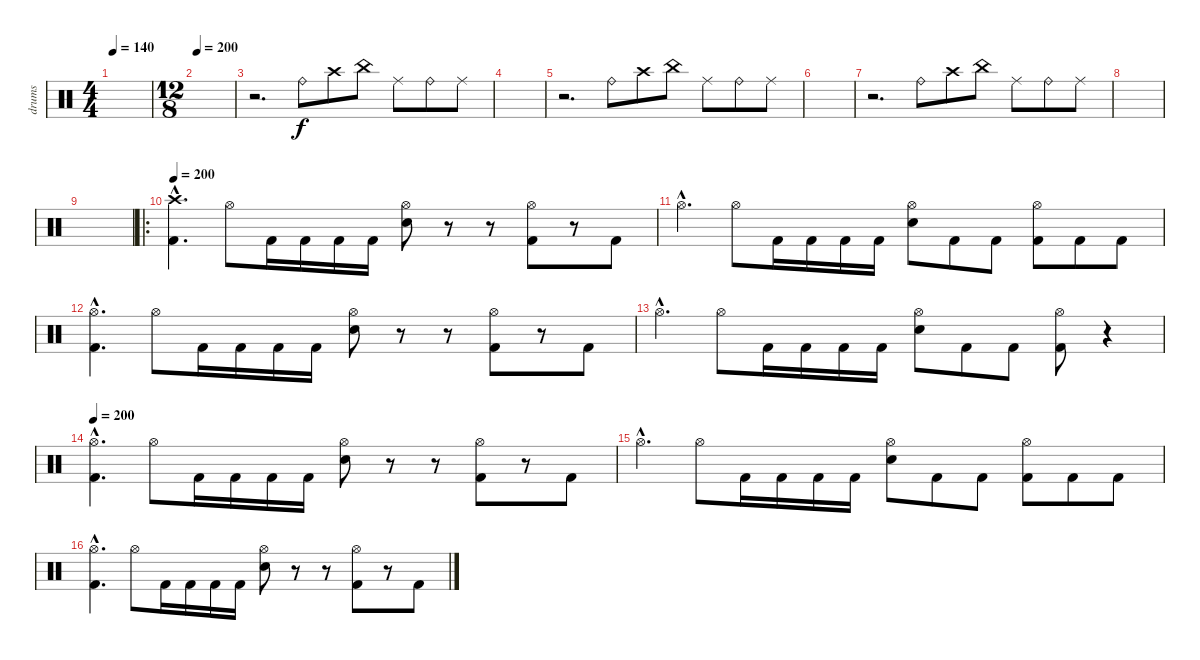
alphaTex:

\track ("drums" "drums") {instrument percussion}
\staff {score}
\articulation defaults
\ts (4 4)
\tempo 140
\clef neutral
\ks c
|
\ts (12 8)
\tempo 195
\tempo 200
|
r.2{d} "Ride (bell)".8 "Crash high (hit)".8 "China (hit)".8 "Ride (middle)".8 "Ride (bell)".8 "Ride (middle)".8 |
|
r.2{d} "Ride (bell)".8 "Crash high (hit)".8 "China (hit)".8 "Ride (middle)".8 "Ride (bell)".8 "Ride (middle)".8 |
|
r.2{d} "Ride (bell)".8 "Crash high (hit)".8 "China (hit)".8 "Ride (middle)".8 "Ride (bell)".8 "Ride (middle)".8 |
|
|
\ro
\tempo 200
("Crash high (hit)"{hac} "Kick (hit) 2"{hac}).4{d} "Hi-Hat (open)".8 "Kick (hit) 2".16 "Kick (hit) 2".16 "Kick (hit) 2".16 "Kick (hit) 2".16 ("Hi-Hat (open)" "Electric Snare (hit)").8 r.8 r.8 ("Hi-Hat (open)" "Kick (hit) 2").8 r.8 "Kick (hit) 2".8 |
"Hi-Hat (open)"{hac}.4{d} "Hi-Hat (open)".8 "Kick (hit) 2".16 "Kick (hit) 2".16 "Kick (hit) 2".16 "Kick (hit) 2".16 ("Hi-Hat (open)" "Electric Snare (hit)").8 "Kick (hit) 2".8 "Kick (hit) 2".8 ("Hi-Hat (open)" "Kick (hit) 2").8 "Kick (hit) 2".8 "Kick (hit) 2".8 |
("Hi-Hat (open)"{hac} "Kick (hit) 2"{hac}).4{d} "Hi-Hat (open)".8 "Kick (hit) 2".16 "Kick (hit) 2".16 "Kick (hit) 2".16 "Kick (hit) 2".16 ("Hi-Hat (open)" "Electric Snare (hit)").8 r.8 r.8 ("Hi-Hat (open)" "Kick (hit) 2").8 r.8 "Kick (hit) 2".8 |
"Hi-Hat (open)"{hac}.4{d} "Hi-Hat (open)".8 "Kick (hit) 2".16 "Kick (hit) 2".16 "Kick (hit) 2".16 "Kick (hit) 2".16 ("Hi-Hat (open)" "Electric Snare (hit)").8 "Kick (hit) 2".8 "Kick (hit) 2".8 ("Hi-Hat (open)" "Kick (hit) 2").8 r.4 |
\tempo 200
("Hi-Hat (open)"{hac} "Kick (hit) 2"{hac}).4{d} "Hi-Hat (open)".8 "Kick (hit) 2".16 "Kick (hit) 2".16 "Kick (hit) 2".16 "Kick (hit) 2".16 ("Hi-Hat (open)" "Electric Snare (hit)").8 r.8 r.8 ("Hi-Hat (open)" "Kick (hit) 2").8 r.8 "Kick (hit) 2".8 |
"Hi-Hat (open)"{hac}.4{d} "Hi-Hat (open)".8 "Kick (hit) 2".16 "Kick (hit) 2".16 "Kick (hit) 2".16 "Kick (hit) 2".16 ("Hi-Hat (open)" "Electric Snare (hit)").8 "Kick (hit) 2".8 "Kick (hit) 2".8 ("Hi-Hat (open)" "Kick (hit) 2").8 "Kick (hit) 2".8 "Kick (hit) 2".8 |
("Hi-Hat (open)"{hac} "Kick (hit) 2"{hac}).4{d} "Hi-Hat (open)".8 "Kick (hit) 2".16 "Kick (hit) 2".16 "Kick (hit) 2".16 "Kick (hit) 2".16 ("Hi-Hat (open)" "Electric Snare (hit)").8 r.8 r.8 ("Hi-Hat (open)" "Kick (hit) 2").8 r.8 "Kick (hit) 2".8
